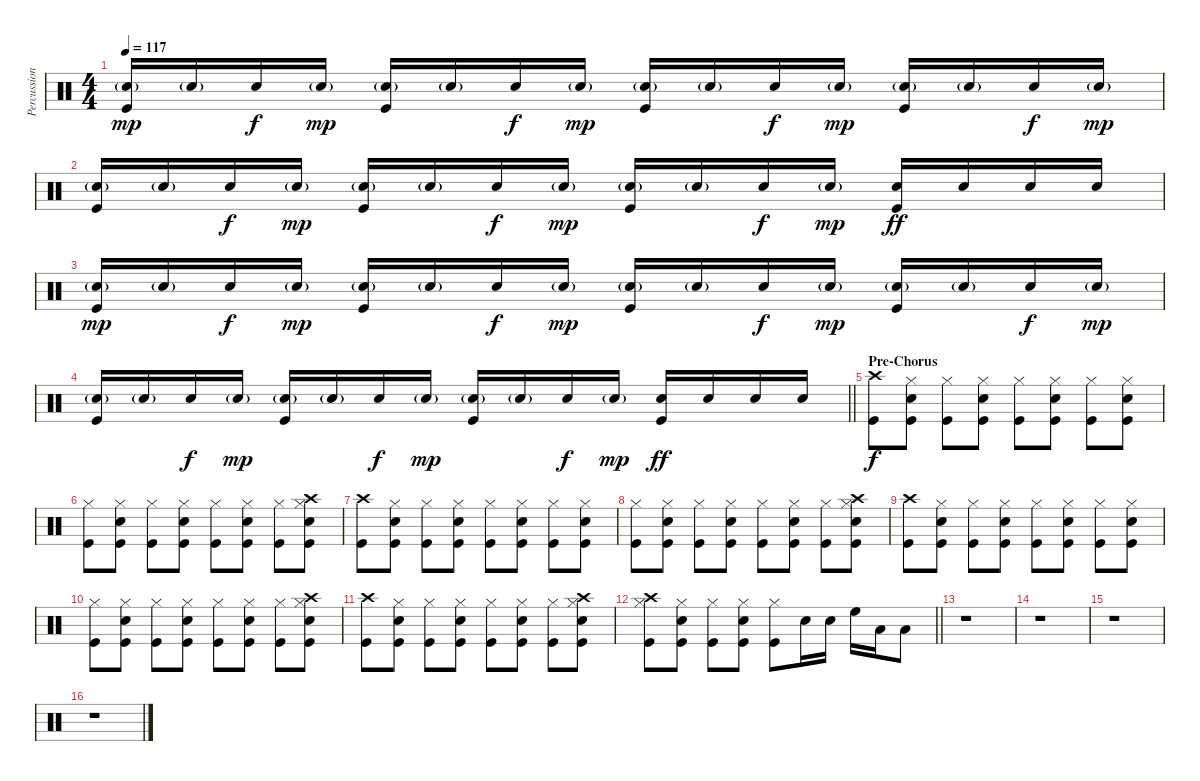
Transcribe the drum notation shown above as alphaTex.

\track ("Percussion" "Percussion") {instrument percussion}
\staff {score}
\articulation defaults
\ts (4 4)
\tempo 117
\clef neutral
\ks c
("Snare (hit) 2"{g} "Kick (hit)").16{dy mp} "Snare (hit) 2"{g}.16 "Snare (hit) 2".16{dy f} "Snare (hit) 2"{g}.16{dy mp} ("Snare (hit) 2"{g} "Kick (hit)").16 "Snare (hit) 2"{g}.16 "Snare (hit) 2".16{dy f} "Snare (hit) 2"{g}.16{dy mp} ("Snare (hit) 2"{g} "Kick (hit)").16 "Snare (hit) 2"{g}.16 "Snare (hit) 2".16{dy f} "Snare (hit) 2"{g}.16{dy mp} ("Snare (hit) 2"{g} "Kick (hit)").16 "Snare (hit) 2"{g}.16 "Snare (hit) 2".16{dy f} "Snare (hit) 2"{g}.16{dy mp} |
("Snare (hit) 2"{g} "Kick (hit)").16 "Snare (hit) 2"{g}.16 "Snare (hit) 2".16{dy f} "Snare (hit) 2"{g}.16{dy mp} ("Snare (hit) 2"{g} "Kick (hit)").16 "Snare (hit) 2"{g}.16 "Snare (hit) 2".16{dy f} "Snare (hit) 2"{g}.16{dy mp} ("Snare (hit) 2"{g} "Kick (hit)").16 "Snare (hit) 2"{g}.16 "Snare (hit) 2".16{dy f} "Snare (hit) 2"{g}.16{dy mp} ("Snare (hit) 2" "Kick (hit)").16{dy ff} "Snare (hit) 2".16 "Snare (hit) 2".16 "Snare (hit) 2".16 |
("Snare (hit) 2"{g} "Kick (hit)").16{dy mp} "Snare (hit) 2"{g}.16 "Snare (hit) 2".16{dy f} "Snare (hit) 2"{g}.16{dy mp} ("Snare (hit) 2"{g} "Kick (hit)").16 "Snare (hit) 2"{g}.16 "Snare (hit) 2".16{dy f} "Snare (hit) 2"{g}.16{dy mp} ("Snare (hit) 2"{g} "Kick (hit)").16 "Snare (hit) 2"{g}.16 "Snare (hit) 2".16{dy f} "Snare (hit) 2"{g}.16{dy mp} ("Snare (hit) 2"{g} "Kick (hit)").16 "Snare (hit) 2"{g}.16 "Snare (hit) 2".16{dy f} "Snare (hit) 2"{g}.16{dy mp} |
\barLineRight lightlight
("Snare (hit) 2"{g} "Kick (hit)").16 "Snare (hit) 2"{g}.16 "Snare (hit) 2".16{dy f} "Snare (hit) 2"{g}.16{dy mp} ("Snare (hit) 2"{g} "Kick (hit)").16 "Snare (hit) 2"{g}.16 "Snare (hit) 2".16{dy f} "Snare (hit) 2"{g}.16{dy mp} ("Snare (hit) 2"{g} "Kick (hit)").16 "Snare (hit) 2"{g}.16 "Snare (hit) 2".16{dy f} "Snare (hit) 2"{g}.16{dy mp} ("Snare (hit) 2" "Kick (hit)").16{dy ff} "Snare (hit) 2".16 "Snare (hit) 2".16 "Snare (hit) 2".16 |
\section ("" "Pre-Chorus")
("Crash high (hit)" "Kick (hit)").8{dy f} ("Hi-Hat (closed)" "Snare (hit) 2" "Kick (hit)").8 ("Hi-Hat (closed)" "Kick (hit)").8 ("Hi-Hat (closed)" "Snare (hit) 2" "Kick (hit)").8 ("Hi-Hat (closed)" "Kick (hit)").8 ("Hi-Hat (closed)" "Snare (hit) 2" "Kick (hit)").8 ("Hi-Hat (closed)" "Kick (hit)").8 ("Hi-Hat (closed)" "Snare (hit) 2" "Kick (hit)").8 |
("Hi-Hat (closed)" "Kick (hit)").8 ("Hi-Hat (closed)" "Snare (hit) 2" "Kick (hit)").8 ("Hi-Hat (closed)" "Kick (hit)").8 ("Hi-Hat (closed)" "Snare (hit) 2" "Kick (hit)").8 ("Hi-Hat (closed)" "Kick (hit)").8 ("Hi-Hat (closed)" "Snare (hit) 2" "Kick (hit)").8 ("Hi-Hat (closed)" "Kick (hit)").8 ("Crash high (hit)" "Hi-Hat (closed)" "Snare (hit) 2" "Kick (hit)").8 |
("Crash high (hit)" "Kick (hit)").8 ("Hi-Hat (closed)" "Snare (hit) 2" "Kick (hit)").8 ("Hi-Hat (closed)" "Kick (hit)").8 ("Hi-Hat (closed)" "Snare (hit) 2" "Kick (hit)").8 ("Hi-Hat (closed)" "Kick (hit)").8 ("Hi-Hat (closed)" "Snare (hit) 2" "Kick (hit)").8 ("Hi-Hat (closed)" "Kick (hit)").8 ("Hi-Hat (closed)" "Snare (hit) 2" "Kick (hit)").8 |
("Hi-Hat (closed)" "Kick (hit)").8 ("Hi-Hat (closed)" "Snare (hit) 2" "Kick (hit)").8 ("Hi-Hat (closed)" "Kick (hit)").8 ("Hi-Hat (closed)" "Snare (hit) 2" "Kick (hit)").8 ("Hi-Hat (closed)" "Kick (hit)").8 ("Hi-Hat (closed)" "Snare (hit) 2" "Kick (hit)").8 ("Hi-Hat (closed)" "Kick (hit)").8 ("Crash high (hit)" "Hi-Hat (closed)" "Snare (hit) 2" "Kick (hit)").8 |
("Crash high (hit)" "Kick (hit)").8 ("Hi-Hat (closed)" "Snare (hit) 2" "Kick (hit)").8 ("Hi-Hat (closed)" "Kick (hit)").8 ("Hi-Hat (closed)" "Snare (hit) 2" "Kick (hit)").8 ("Hi-Hat (closed)" "Kick (hit)").8 ("Hi-Hat (closed)" "Snare (hit) 2" "Kick (hit)").8 ("Hi-Hat (closed)" "Kick (hit)").8 ("Hi-Hat (closed)" "Snare (hit) 2" "Kick (hit)").8 |
("Hi-Hat (closed)" "Kick (hit)").8 ("Hi-Hat (closed)" "Snare (hit) 2" "Kick (hit)").8 ("Hi-Hat (closed)" "Kick (hit)").8 ("Hi-Hat (closed)" "Snare (hit) 2" "Kick (hit)").8 ("Hi-Hat (closed)" "Kick (hit)").8 ("Hi-Hat (closed)" "Snare (hit) 2" "Kick (hit)").8 ("Hi-Hat (closed)" "Kick (hit)").8 ("Crash high (hit)" "Hi-Hat (closed)" "Snare (hit) 2" "Kick (hit)").8 |
("Crash high (hit)" "Kick (hit)").8 ("Hi-Hat (closed)" "Snare (hit) 2" "Kick (hit)").8 ("Hi-Hat (closed)" "Kick (hit)").8 ("Hi-Hat (closed)" "Snare (hit) 2" "Kick (hit)").8 ("Hi-Hat (closed)" "Kick (hit)").8 ("Hi-Hat (closed)" "Snare (hit) 2" "Kick (hit)").8 ("Hi-Hat (closed)" "Kick (hit)").8 ("Crash high (hit)" "Hi-Hat (closed)" "Snare (hit) 2" "Kick (hit)").8 |
\barLineRight lightlight
("Crash high (hit)" "Hi-Hat (closed)" "Kick (hit)").8 ("Hi-Hat (closed)" "Snare (hit) 2" "Kick (hit)").8 ("Hi-Hat (closed)" "Kick (hit)").8 ("Hi-Hat (closed)" "Snare (hit) 2" "Kick (hit)").8 ("Hi-Hat (closed)" "Kick (hit)").8 "Snare (hit) 2".16 "Snare (hit) 2".16 "High Floor Tom (hit)".16 "Low Tom (hit)".16 "Low Tom (hit)".8 |
r.1 |
r.1 |
r.1 |
r.1
